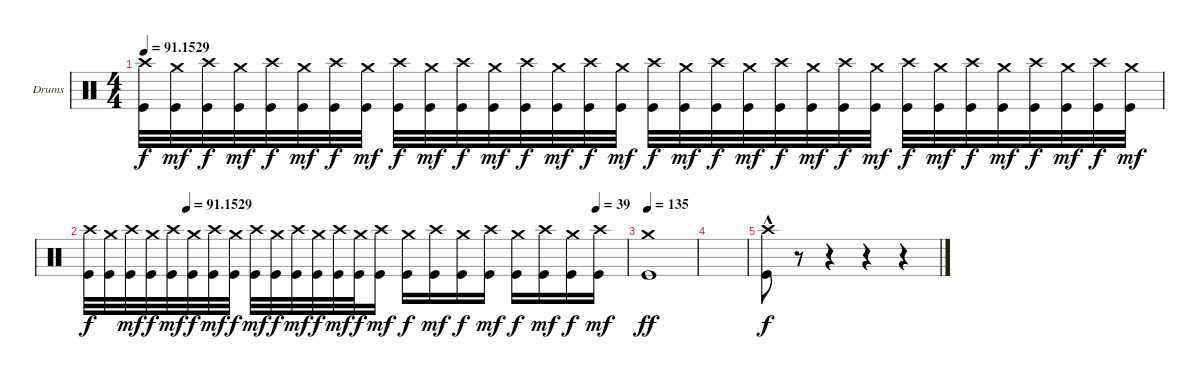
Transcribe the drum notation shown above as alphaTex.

\bracketExtendMode groupsimilarinstruments
\firstSystemTrackNameOrientation horizontal
\otherSystemsTrackNameOrientation horizontal
\track ("Drums" "Drums") {instrument percussion}
\staff {score}
\articulation defaults
\ts (4 4)
\tempo
91.1529
\accidentals auto
\clef neutral
\ottava regular
\simile none
\ks c
("Kick (hit)" "Crash high (hit)").32{dy f} ("Kick (hit)" "Crash medium (hit)").32{dy mf} ("Kick (hit)" "Crash high (hit)").32{dy f} ("Kick (hit)" "Crash medium (hit)").32{dy mf} ("Kick (hit)" "Crash high (hit)").32{dy f} ("Kick (hit)" "Crash medium (hit)").32{dy mf} ("Kick (hit)" "Crash high (hit)").32{dy f} ("Kick (hit)" "Crash medium (hit)").32{dy mf} ("Kick (hit)" "Crash high (hit)").32{dy f} ("Kick (hit)" "Crash medium (hit)").32{dy mf} ("Kick (hit)" "Crash high (hit)").32{dy f} ("Kick (hit)" "Crash medium (hit)").32{dy mf} ("Kick (hit)" "Crash high (hit)").32{dy f} ("Kick (hit)" "Crash medium (hit)").32{dy mf} ("Kick (hit)" "Crash high (hit)").32{dy f} ("Kick (hit)" "Crash medium (hit)").32{dy mf} ("Kick (hit)" "Crash high (hit)").32{dy f} ("Kick (hit)" "Crash medium (hit)").32{dy mf} ("Kick (hit)" "Crash high (hit)").32{dy f} ("Kick (hit)" "Crash medium (hit)").32{dy mf} ("Kick (hit)" "Crash high (hit)").32{dy f} ("Kick (hit)" "Crash medium (hit)").32{dy mf} ("Kick (hit)" "Crash high (hit)").32{dy f} ("Kick (hit)" "Crash medium (hit)").32{dy mf} ("Kick (hit)" "Crash high (hit)").32{dy f} ("Kick (hit)" "Crash medium (hit)").32{dy mf} ("Kick (hit)" "Crash high (hit)").32{dy f} ("Kick (hit)" "Crash medium (hit)").32{dy mf} ("Kick (hit)" "Crash high (hit)").32{dy f} ("Kick (hit)" "Crash medium (hit)").32{dy mf} ("Kick (hit)" "Crash high (hit)").32{dy f} ("Kick (hit)" "Crash medium (hit)").32{dy mf} |
\tempo (91.1529 0.18125)
\tempo (39 0.94375)
("Kick (hit)" "Crash high (hit)").32{dy f} ("Kick (hit)" "Crash medium (hit)").32 ("Kick (hit)" "Crash high (hit)").32{dy mf} ("Kick (hit)" "Crash medium (hit)").32{dy f} ("Kick (hit)" "Crash high (hit)").32{dy mf} ("Kick (hit)" "Crash medium (hit)").32{dy f} ("Kick (hit)" "Crash high (hit)").32{dy mf} ("Kick (hit)" "Crash medium (hit)").32{dy f} ("Kick (hit)" "Crash high (hit)").32{dy mf} ("Kick (hit)" "Crash medium (hit)").32{dy f} ("Kick (hit)" "Crash high (hit)").32{dy mf} ("Kick (hit)" "Crash medium (hit)").32{dy f} ("Kick (hit)" "Crash high (hit)").32{dy mf} ("Kick (hit)" "Crash medium (hit)").32{dy f} ("Kick (hit)" "Crash high (hit)").16{dy mf} ("Kick (hit)" "Crash medium (hit)").16{dy f} ("Kick (hit)" "Crash high (hit)").16{dy mf} ("Kick (hit)" "Crash medium (hit)").16{dy f} ("Kick (hit)" "Crash high (hit)").16{dy mf} ("Kick (hit)" "Crash medium (hit)").16{dy f} ("Kick (hit)" "Crash high (hit)").16{dy mf} ("Kick (hit)" "Crash medium (hit)").16{dy f} ("Kick (hit)" "Crash high (hit)").16{dy mf} |
\tempo 135
("Kick (hit)" "Crash medium (hit)").1{dy ff} |
|
("Kick (hit)"{hac} "Crash high (hit)"{hac}).8{dy f} r.8 r.4 r.4 r.4
